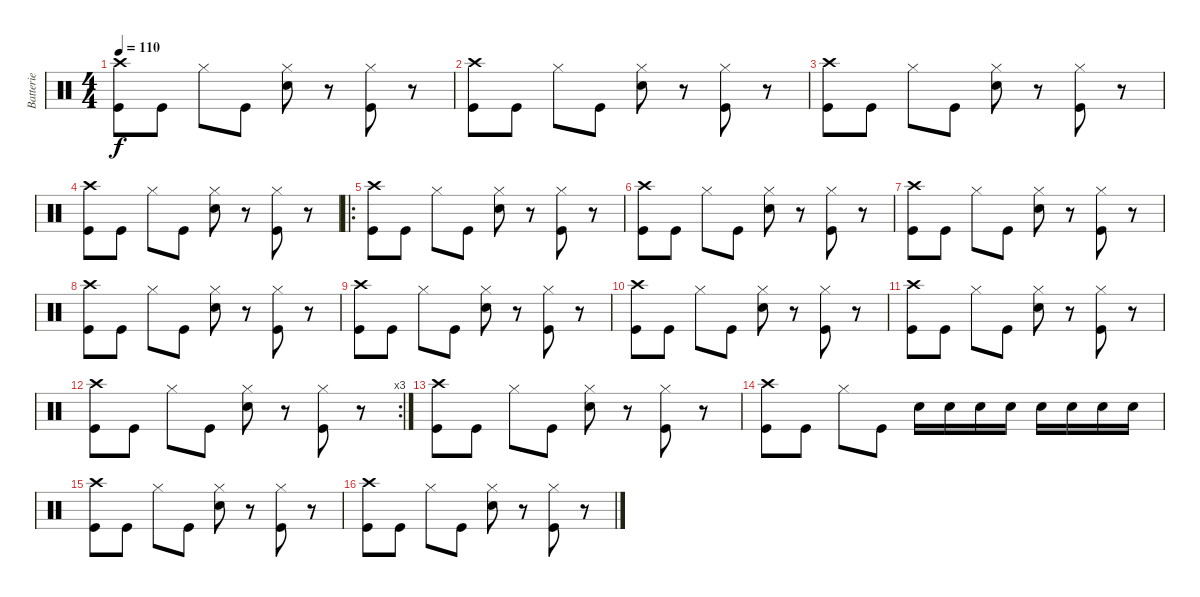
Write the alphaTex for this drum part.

\track ("Batterie" "Batterie") {instrument percussion}
\staff {score}
\articulation defaults
\ts (4 4)
\tempo 110
\clef neutral
\ks c
("Crash high (hit)" "Kick (hit)").8{dy f} "Kick (hit)".8 "Hi-Hat (closed)".8 "Kick (hit)".8 ("Hi-Hat (closed)" "Snare (hit) 2").8 r.8 ("Hi-Hat (closed)" "Kick (hit)").8 r.8 |
("Crash high (hit)" "Kick (hit)").8 "Kick (hit)".8 "Hi-Hat (closed)".8 "Kick (hit)".8 ("Hi-Hat (closed)" "Snare (hit) 2").8 r.8 ("Hi-Hat (closed)" "Kick (hit)").8 r.8 |
("Crash high (hit)" "Kick (hit)").8 "Kick (hit)".8 "Hi-Hat (closed)".8 "Kick (hit)".8 ("Hi-Hat (closed)" "Snare (hit) 2").8 r.8 ("Hi-Hat (closed)" "Kick (hit)").8 r.8 |
("Crash high (hit)" "Kick (hit)").8 "Kick (hit)".8 "Hi-Hat (closed)".8 "Kick (hit)".8 ("Hi-Hat (closed)" "Snare (hit) 2").8 r.8 ("Hi-Hat (closed)" "Kick (hit)").8 r.8 |
\ro
("Crash high (hit)" "Kick (hit)").8 "Kick (hit)".8 "Hi-Hat (closed)".8 "Kick (hit)".8 ("Hi-Hat (closed)" "Snare (hit) 2").8 r.8 ("Hi-Hat (closed)" "Kick (hit)").8 r.8 |
("Crash high (hit)" "Kick (hit)").8 "Kick (hit)".8 "Hi-Hat (closed)".8 "Kick (hit)".8 ("Hi-Hat (closed)" "Snare (hit) 2").8 r.8 ("Hi-Hat (closed)" "Kick (hit)").8 r.8 |
("Crash high (hit)" "Kick (hit)").8 "Kick (hit)".8 "Hi-Hat (closed)".8 "Kick (hit)".8 ("Hi-Hat (closed)" "Snare (hit) 2").8 r.8 ("Hi-Hat (closed)" "Kick (hit)").8 r.8 |
("Crash high (hit)" "Kick (hit)").8 "Kick (hit)".8 "Hi-Hat (closed)".8 "Kick (hit)".8 ("Hi-Hat (closed)" "Snare (hit) 2").8 r.8 ("Hi-Hat (closed)" "Kick (hit)").8 r.8 |
("Crash high (hit)" "Kick (hit)").8 "Kick (hit)".8 "Hi-Hat (closed)".8 "Kick (hit)".8 ("Hi-Hat (closed)" "Snare (hit) 2").8 r.8 ("Hi-Hat (closed)" "Kick (hit)").8 r.8 |
("Crash high (hit)" "Kick (hit)").8 "Kick (hit)".8 "Hi-Hat (closed)".8 "Kick (hit)".8 ("Hi-Hat (closed)" "Snare (hit) 2").8 r.8 ("Hi-Hat (closed)" "Kick (hit)").8 r.8 |
("Crash high (hit)" "Kick (hit)").8 "Kick (hit)".8 "Hi-Hat (closed)".8 "Kick (hit)".8 ("Hi-Hat (closed)" "Snare (hit) 2").8 r.8 ("Hi-Hat (closed)" "Kick (hit)").8 r.8 |
\rc 3
("Crash high (hit)" "Kick (hit)").8 "Kick (hit)".8 "Hi-Hat (closed)".8 "Kick (hit)".8 ("Hi-Hat (closed)" "Snare (hit) 2").8 r.8 ("Hi-Hat (closed)" "Kick (hit)").8 r.8 |
("Crash high (hit)" "Kick (hit)").8 "Kick (hit)".8 "Hi-Hat (closed)".8 "Kick (hit)".8 ("Hi-Hat (closed)" "Snare (hit) 2").8 r.8 ("Hi-Hat (closed)" "Kick (hit)").8 r.8 |
("Crash high (hit)" "Kick (hit)").8 "Kick (hit)".8 "Hi-Hat (closed)".8 "Kick (hit)".8 "Snare (hit) 2".16 "Snare (hit) 2".16 "Snare (hit) 2".16 "Snare (hit) 2".16 "Snare (hit) 2".16 "Snare (hit) 2".16 "Snare (hit) 2".16 "Snare (hit) 2".16 |
("Crash high (hit)" "Kick (hit)").8 "Kick (hit)".8 "Hi-Hat (closed)".8 "Kick (hit)".8 ("Hi-Hat (closed)" "Snare (hit) 2").8 r.8 ("Hi-Hat (closed)" "Kick (hit)").8 r.8 |
("Crash high (hit)" "Kick (hit)").8 "Kick (hit)".8 "Hi-Hat (closed)".8 "Kick (hit)".8 ("Hi-Hat (closed)" "Snare (hit) 2").8 r.8 ("Hi-Hat (closed)" "Kick (hit)").8 r.8
